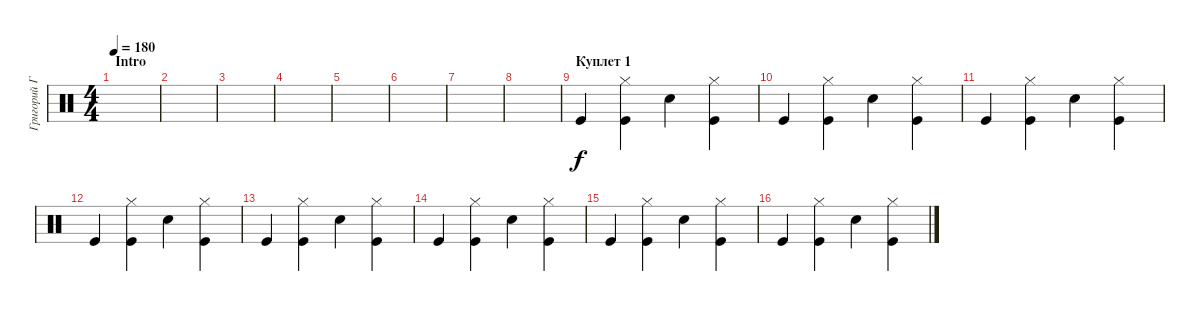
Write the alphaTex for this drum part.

\track ("Григорий Габерман" "Григорий Г") {instrument percussion}
\staff {score}
\articulation defaults
\ts (4 4)
\section ("" "Intro")
\tempo 180
\clef neutral
\ks c
|
|
|
|
|
|
|
|
\section ("" "Куплет 1")
"Kick (hit)".4 ("Kick (hit)" "Hi-Hat (closed)").4 "Snare (hit) 2".4 ("Kick (hit)" "Hi-Hat (closed)").4 |
"Kick (hit)".4 ("Kick (hit)" "Hi-Hat (closed)").4 "Snare (hit) 2".4 ("Kick (hit)" "Hi-Hat (closed)").4 |
"Kick (hit)".4 ("Kick (hit)" "Hi-Hat (closed)").4 "Snare (hit) 2".4 ("Kick (hit)" "Hi-Hat (closed)").4 |
"Kick (hit)".4 ("Kick (hit)" "Hi-Hat (closed)").4 "Snare (hit) 2".4 ("Kick (hit)" "Hi-Hat (closed)").4 |
"Kick (hit)".4 ("Kick (hit)" "Hi-Hat (closed)").4 "Snare (hit) 2".4 ("Kick (hit)" "Hi-Hat (closed)").4 |
"Kick (hit)".4 ("Kick (hit)" "Hi-Hat (closed)").4 "Snare (hit) 2".4 ("Kick (hit)" "Hi-Hat (closed)").4 |
"Kick (hit)".4 ("Kick (hit)" "Hi-Hat (closed)").4 "Snare (hit) 2".4 ("Kick (hit)" "Hi-Hat (closed)").4 |
"Kick (hit)".4 ("Kick (hit)" "Hi-Hat (closed)").4 "Snare (hit) 2".4 ("Kick (hit)" "Hi-Hat (closed)").4
